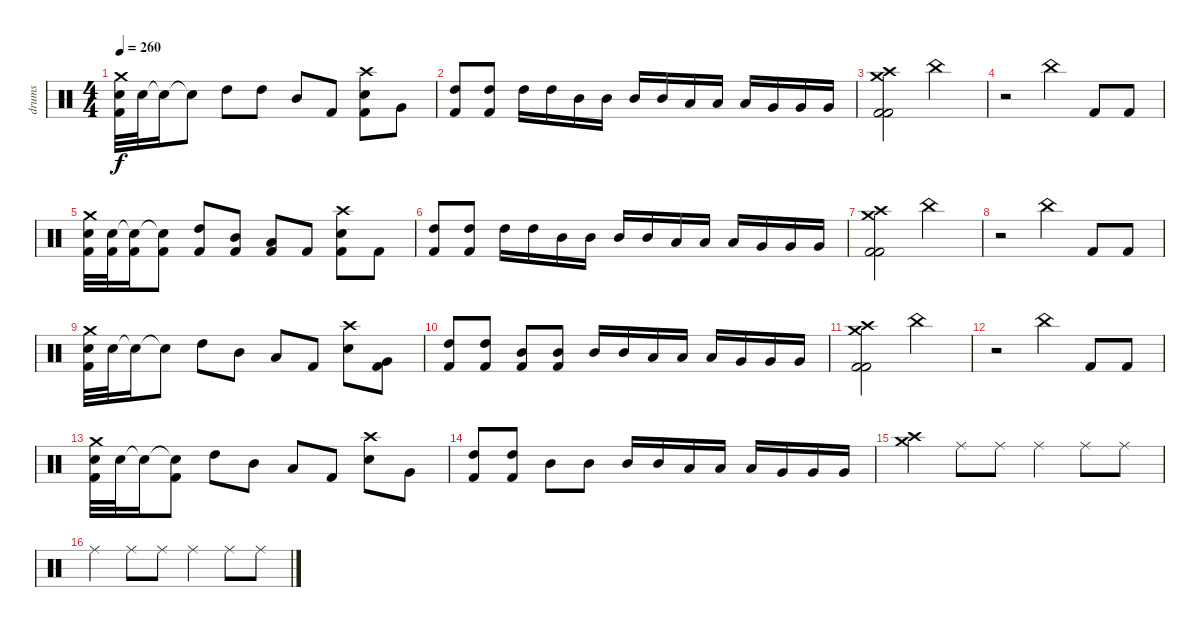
\track ("drums" "drums") {instrument percussion}
\staff {score}
\articulation defaults
\ts (4 4)
\tempo 260
\clef neutral
\ks c
("Crash medium (hit)" "Electric Snare (hit)" "Kick (hit) 2").32{dy f} "Electric Snare (hit)".32 "Electric Snare (hit)"{t}.16 "Electric Snare (hit)"{t}.8 "High Tom (hit)".8 "High Tom (hit)".8 "Mid Tom (hit)".8 "Kick (hit) 2".8 ("Crash high (hit)" "Electric Snare (hit)" "Kick (hit) 2").8 "Very Low Tom (hit)".8 |
("High Tom (hit)" "Kick (hit) 2").8 ("High Tom (hit)" "Kick (hit) 2").8 "High Tom (hit)".16 "High Tom (hit)".16 "Mid Tom (hit)".16 "Mid Tom (hit)".16 "Mid Tom (hit)".16 "Mid Tom (hit)".16 "Low Tom (hit)".16 "Low Tom (hit)".16 "Low Tom (hit)".16 "Very Low Tom (hit)".16 "Very Low Tom (hit)".16 "Very Low Tom (hit)".16 |
("Crash medium (hit)" "Crash high (hit)" "Kick (hit) 2" "Kick (hit) 2").2 "China (hit)".2 |
r.2 "China (hit)".4 "Kick (hit) 2".8 "Kick (hit) 2".8 |
("Crash medium (hit)" "Electric Snare (hit)" "Kick (hit) 2").32 ("Electric Snare (hit)" "Kick (hit) 2").32 ("Electric Snare (hit)"{t} "Kick (hit) 2").16 ("Electric Snare (hit)"{t} "Kick (hit) 2").8 ("High Tom (hit)" "Kick (hit) 2").8 ("Mid Tom (hit)" "Kick (hit) 2").8 ("Low Tom (hit)" "Kick (hit) 2").8 "Kick (hit) 2".8 ("Crash high (hit)" "Electric Snare (hit)" "Kick (hit) 2").8 "Kick (hit) 2".8 |
("High Tom (hit)" "Kick (hit) 2").8 ("High Tom (hit)" "Kick (hit) 2").8 "High Tom (hit)".16 "High Tom (hit)".16 "Mid Tom (hit)".16 "Mid Tom (hit)".16 "Mid Tom (hit)".16 "Mid Tom (hit)".16 "Low Tom (hit)".16 "Low Tom (hit)".16 "Low Tom (hit)".16 "Very Low Tom (hit)".16 "Very Low Tom (hit)".16 "Very Low Tom (hit)".16 |
("Crash medium (hit)" "Crash high (hit)" "Kick (hit) 2" "Kick (hit) 2").2 "China (hit)".2 |
r.2 "China (hit)".4 "Kick (hit) 2".8 "Kick (hit) 2".8 |
("Crash medium (hit)" "Electric Snare (hit)" "Kick (hit) 2").32 "Electric Snare (hit)".32 "Electric Snare (hit)"{t}.16 "Electric Snare (hit)"{t}.8 "High Tom (hit)".8 "Mid Tom (hit)".8 "Low Tom (hit)".8 "Kick (hit) 2".8 ("Crash high (hit)" "Electric Snare (hit)").8 ("Very Low Tom (hit)" "Kick (hit) 2").8 |
("High Tom (hit)" "Kick (hit) 2").8 ("High Tom (hit)" "Kick (hit) 2").8 ("Mid Tom (hit)" "Kick (hit) 2").8 ("Mid Tom (hit)" "Kick (hit) 2").8 "Mid Tom (hit)".16 "Mid Tom (hit)".16 "Low Tom (hit)".16 "Low Tom (hit)".16 "Low Tom (hit)".16 "Very Low Tom (hit)".16 "Very Low Tom (hit)".16 "Very Low Tom (hit)".16 |
("Crash medium (hit)" "Crash high (hit)" "Kick (hit) 2" "Kick (hit) 2").2 "China (hit)".2 |
r.2 "China (hit)".4 "Kick (hit) 2".8 "Kick (hit) 2".8 |
("Crash medium (hit)" "Electric Snare (hit)" "Kick (hit) 2").32 "Electric Snare (hit)".32 "Electric Snare (hit)"{t}.16 ("Electric Snare (hit)"{t} "Kick (hit) 2").8 "High Tom (hit)".8 "Mid Tom (hit)".8 "Low Tom (hit)".8 "Kick (hit) 2".8 ("Crash high (hit)" "Electric Snare (hit)").8 "Very Low Tom (hit)".8 |
("High Tom (hit)" "Kick (hit) 2").8 ("High Tom (hit)" "Kick (hit) 2").8 "Mid Tom (hit)".8 "Mid Tom (hit)".8 "Mid Tom (hit)".16 "Mid Tom (hit)".16 "Low Tom (hit)".16 "Low Tom (hit)".16 "Low Tom (hit)".16 "Very Low Tom (hit)".16 "Very Low Tom (hit)".16 "Very Low Tom (hit)".16 |
("Crash medium (hit)" "Crash high (hit)").4 "Ride (middle)".8 "Ride (middle)".8 "Ride (middle)".4 "Ride (middle)".8 "Ride (middle)".8 |
"Ride (middle)".4 "Ride (middle)".8 "Ride (middle)".8 "Ride (middle)".4 "Ride (middle)".8 "Ride (middle)".8
